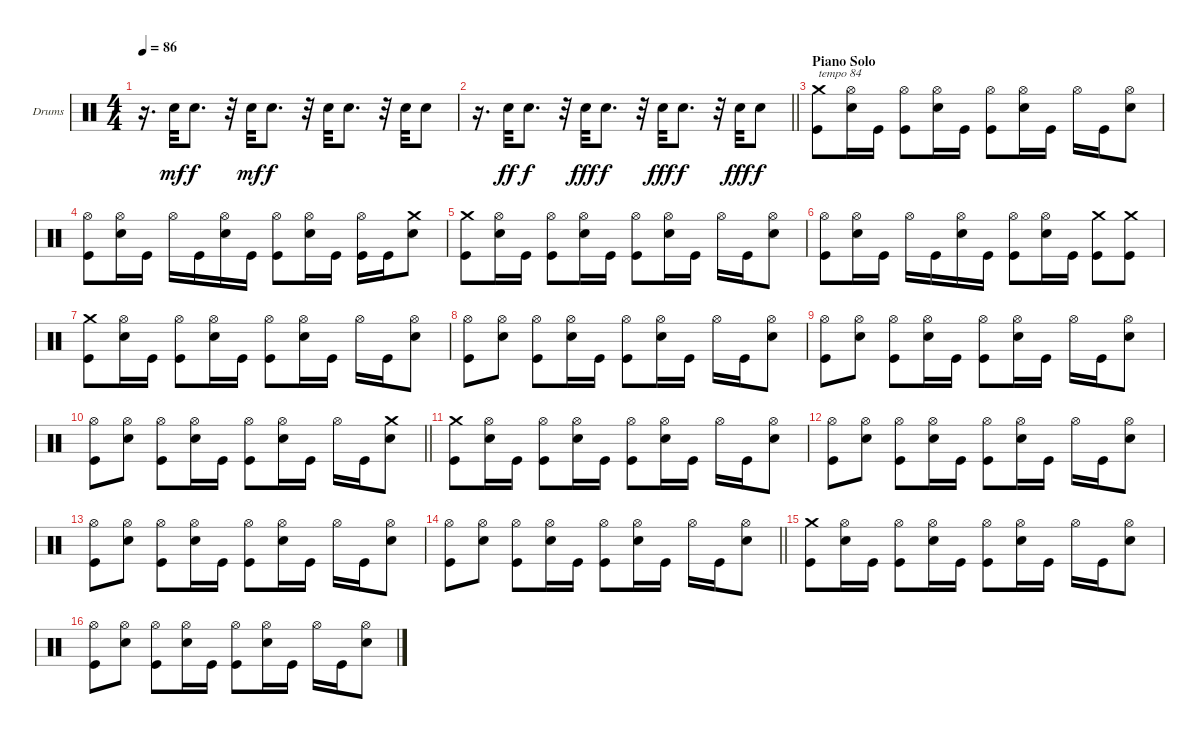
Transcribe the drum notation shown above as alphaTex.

\bracketExtendMode groupsimilarinstruments
\firstSystemTrackNameOrientation horizontal
\otherSystemsTrackNameOrientation horizontal
\track ("Drumkit" "Drums") {instrument percussion}
\staff {score}
\articulation defaults
\ts (4 4)
\tempo 86
\clef neutral
\ks c
r.16{d dy f} "Snare (hit) 2".32{dy mf} "Snare (hit) 2".8{d dy f} r.32 "Snare (hit) 2".32{dy mf} "Snare (hit) 2".8{d dy f} r.32 "Snare (hit) 2".32 "Snare (hit) 2".8{d} r.32 "Snare (hit) 2".32 "Snare (hit) 2".8 |
\barLineRight lightlight
r.16{d} "Snare (hit) 2".32{dy ff} "Snare (hit) 2".8{d dy f} r.32 "Snare (hit) 2".32{dy fff} "Snare (hit) 2".8{d dy f} r.32 "Snare (hit) 2".32{dy fff} "Snare (hit) 2".8{d dy f} r.32 "Snare (hit) 2".32{dy fff} "Snare (hit) 2".8{dy f} |
\section ("" "Piano Solo")
("Crash medium (hit)" "Kick (hit)").8{txt "tempo 84"} ("Hi-Hat (open)" "Snare (hit) 2").16 "Kick (hit)".16 ("Hi-Hat (open)" "Kick (hit)").8 ("Hi-Hat (open)" "Snare (hit) 2").16 "Kick (hit)".16 ("Hi-Hat (open)" "Kick (hit)").8 ("Hi-Hat (open)" "Snare (hit) 2").16 "Kick (hit)".16 "Hi-Hat (open)".16 "Kick (hit)".16 ("Hi-Hat (open)" "Snare (hit) 2").8 |
("Hi-Hat (open)" "Kick (hit)").8 ("Hi-Hat (open)" "Snare (hit) 2").16 "Kick (hit)".16 "Hi-Hat (open)".16 "Kick (hit)".16 ("Hi-Hat (open)" "Snare (hit) 2").16 "Kick (hit)".16 ("Hi-Hat (open)" "Kick (hit)").8 ("Hi-Hat (open)" "Snare (hit) 2").16 "Kick (hit)".16 ("Hi-Hat (open)" "Kick (hit)").16 "Kick (hit)".16 ("Crash medium (hit)" "Snare (hit) 2").8 |
("Crash medium (hit)" "Kick (hit)").8 ("Hi-Hat (open)" "Snare (hit) 2").16 "Kick (hit)".16 ("Hi-Hat (open)" "Kick (hit)").8 ("Hi-Hat (open)" "Snare (hit) 2").16 "Kick (hit)".16 ("Hi-Hat (open)" "Kick (hit)").8 ("Hi-Hat (open)" "Snare (hit) 2").16 "Kick (hit)".16 "Hi-Hat (open)".16 "Kick (hit)".16 ("Hi-Hat (open)" "Snare (hit) 2").8 |
("Hi-Hat (open)" "Kick (hit)").8 ("Hi-Hat (open)" "Snare (hit) 2").16 "Kick (hit)".16 "Hi-Hat (open)".16 "Kick (hit)".16 ("Hi-Hat (open)" "Snare (hit) 2").16 "Kick (hit)".16 ("Hi-Hat (open)" "Kick (hit)").8 ("Hi-Hat (open)" "Snare (hit) 2").16 "Kick (hit)".16 ("Crash medium (hit)" "Kick (hit)").8 ("Crash medium (hit)" "Kick (hit)").8 |
("Crash medium (hit)" "Kick (hit)").8 ("Hi-Hat (open)" "Snare (hit) 2").16 "Kick (hit)".16 ("Hi-Hat (open)" "Kick (hit)").8 ("Hi-Hat (open)" "Snare (hit) 2").16 "Kick (hit)".16 ("Hi-Hat (open)" "Kick (hit)").8 ("Hi-Hat (open)" "Snare (hit) 2").16 "Kick (hit)".16 "Hi-Hat (open)".16 "Kick (hit)".16 ("Hi-Hat (open)" "Snare (hit) 2").8 |
("Hi-Hat (open)" "Kick (hit)").8 ("Hi-Hat (open)" "Snare (hit) 2").8 ("Hi-Hat (open)" "Kick (hit)").8 ("Hi-Hat (open)" "Snare (hit) 2").16 "Kick (hit)".16 ("Hi-Hat (open)" "Kick (hit)").8 ("Hi-Hat (open)" "Snare (hit) 2").16 "Kick (hit)".16 "Hi-Hat (open)".16 "Kick (hit)".16 ("Hi-Hat (open)" "Snare (hit) 2").8 |
("Hi-Hat (open)" "Kick (hit)").8 ("Hi-Hat (open)" "Snare (hit) 2").8 ("Hi-Hat (open)" "Kick (hit)").8 ("Hi-Hat (open)" "Snare (hit) 2").16 "Kick (hit)".16 ("Hi-Hat (open)" "Kick (hit)").8 ("Hi-Hat (open)" "Snare (hit) 2").16 "Kick (hit)".16 "Hi-Hat (open)".16 "Kick (hit)".16 ("Hi-Hat (open)" "Snare (hit) 2").8 |
\barLineRight lightlight
("Hi-Hat (open)" "Kick (hit)").8 ("Hi-Hat (open)" "Snare (hit) 2").8 ("Hi-Hat (open)" "Kick (hit)").8 ("Hi-Hat (open)" "Snare (hit) 2").16 "Kick (hit)".16 ("Hi-Hat (open)" "Kick (hit)").8 ("Hi-Hat (open)" "Snare (hit) 2").16 "Kick (hit)".16 "Hi-Hat (open)".16 "Kick (hit)".16 ("Crash medium (hit)" "Snare (hit) 2").8 |
("Crash medium (hit)" "Kick (hit)").8 ("Hi-Hat (open)" "Snare (hit) 2").16 "Kick (hit)".16 ("Hi-Hat (open)" "Kick (hit)").8 ("Hi-Hat (open)" "Snare (hit) 2").16 "Kick (hit)".16 ("Hi-Hat (open)" "Kick (hit)").8 ("Hi-Hat (open)" "Snare (hit) 2").16 "Kick (hit)".16 "Hi-Hat (open)".16 "Kick (hit)".16 ("Hi-Hat (open)" "Snare (hit) 2").8 |
("Hi-Hat (open)" "Kick (hit)").8 ("Hi-Hat (open)" "Snare (hit) 2").8 ("Hi-Hat (open)" "Kick (hit)").8 ("Hi-Hat (open)" "Snare (hit) 2").16 "Kick (hit)".16 ("Hi-Hat (open)" "Kick (hit)").8 ("Hi-Hat (open)" "Snare (hit) 2").16 "Kick (hit)".16 "Hi-Hat (open)".16 "Kick (hit)".16 ("Hi-Hat (open)" "Snare (hit) 2").8 |
("Hi-Hat (open)" "Kick (hit)").8 ("Hi-Hat (open)" "Snare (hit) 2").8 ("Hi-Hat (open)" "Kick (hit)").8 ("Hi-Hat (open)" "Snare (hit) 2").16 "Kick (hit)".16 ("Hi-Hat (open)" "Kick (hit)").8 ("Hi-Hat (open)" "Snare (hit) 2").16 "Kick (hit)".16 "Hi-Hat (open)".16 "Kick (hit)".16 ("Hi-Hat (open)" "Snare (hit) 2").8 |
\barLineRight lightlight
("Hi-Hat (open)" "Kick (hit)").8 ("Hi-Hat (open)" "Snare (hit) 2").8 ("Hi-Hat (open)" "Kick (hit)").8 ("Hi-Hat (open)" "Snare (hit) 2").16 "Kick (hit)".16 ("Hi-Hat (open)" "Kick (hit)").8 ("Hi-Hat (open)" "Snare (hit) 2").16 "Kick (hit)".16 "Hi-Hat (open)".16 "Kick (hit)".16 ("Hi-Hat (open)" "Snare (hit) 2").8 |
("Crash medium (hit)" "Kick (hit)").8 ("Hi-Hat (open)" "Snare (hit) 2").16 "Kick (hit)".16 ("Hi-Hat (open)" "Kick (hit)").8 ("Hi-Hat (open)" "Snare (hit) 2").16 "Kick (hit)".16 ("Hi-Hat (open)" "Kick (hit)").8 ("Hi-Hat (open)" "Snare (hit) 2").16 "Kick (hit)".16 "Hi-Hat (open)".16 "Kick (hit)".16 ("Hi-Hat (open)" "Snare (hit) 2").8 |
("Hi-Hat (open)" "Kick (hit)").8 ("Hi-Hat (open)" "Snare (hit) 2").8 ("Hi-Hat (open)" "Kick (hit)").8 ("Hi-Hat (open)" "Snare (hit) 2").16 "Kick (hit)".16 ("Hi-Hat (open)" "Kick (hit)").8 ("Hi-Hat (open)" "Snare (hit) 2").16 "Kick (hit)".16 "Hi-Hat (open)".16 "Kick (hit)".16 ("Hi-Hat (open)" "Snare (hit) 2").8
